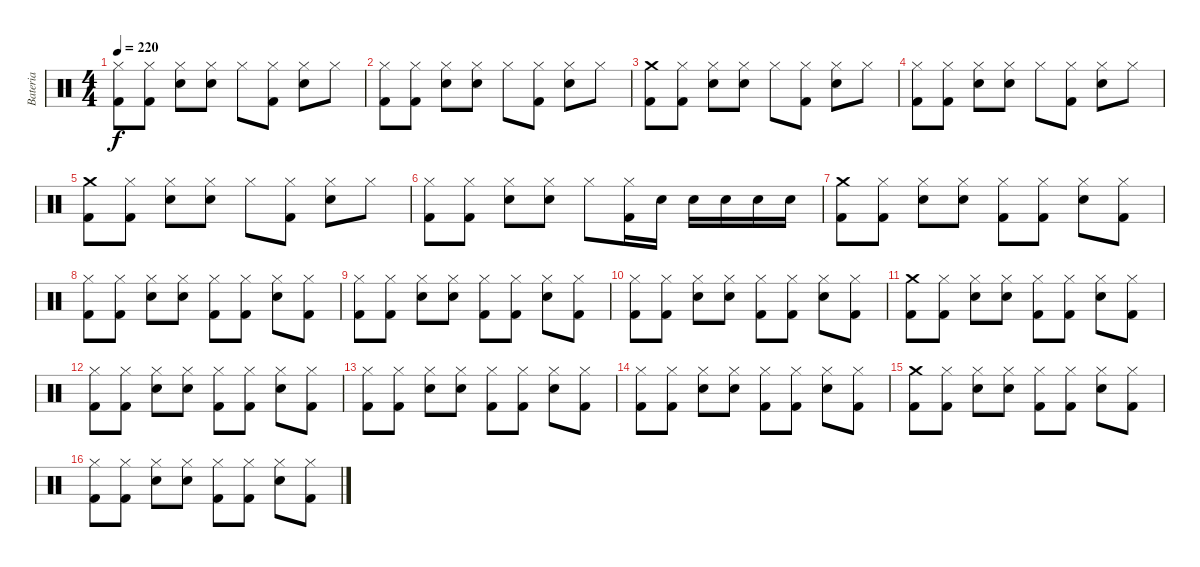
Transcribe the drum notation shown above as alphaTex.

\track ("Bateria" "Bateria") {instrument percussion}
\staff {score}
\articulation defaults
\ts (4 4)
\tempo 220
\clef neutral
\ks c
("Hi-Hat (closed)" "Kick (hit) 2").8{dy f} ("Hi-Hat (closed)" "Kick (hit) 2").8 ("Hi-Hat (closed)" "Electric Snare (hit)").8 ("Hi-Hat (closed)" "Electric Snare (hit)").8 "Hi-Hat (closed)".8 ("Hi-Hat (closed)" "Kick (hit) 2").8 ("Hi-Hat (closed)" "Electric Snare (hit)").8 "Hi-Hat (closed)".8 |
("Hi-Hat (closed)" "Kick (hit) 2").8 ("Hi-Hat (closed)" "Kick (hit) 2").8 ("Hi-Hat (closed)" "Electric Snare (hit)").8 ("Hi-Hat (closed)" "Electric Snare (hit)").8 "Hi-Hat (closed)".8 ("Hi-Hat (closed)" "Kick (hit) 2").8 ("Hi-Hat (closed)" "Electric Snare (hit)").8 "Hi-Hat (closed)".8 |
("Crash medium (hit)" "Kick (hit) 2").8 ("Hi-Hat (closed)" "Kick (hit) 2").8 ("Hi-Hat (closed)" "Electric Snare (hit)").8 ("Hi-Hat (closed)" "Electric Snare (hit)").8 "Hi-Hat (closed)".8 ("Hi-Hat (closed)" "Kick (hit) 2").8 ("Hi-Hat (closed)" "Electric Snare (hit)").8 "Hi-Hat (closed)".8 |
("Hi-Hat (closed)" "Kick (hit) 2").8 ("Hi-Hat (closed)" "Kick (hit) 2").8 ("Hi-Hat (closed)" "Electric Snare (hit)").8 ("Hi-Hat (closed)" "Electric Snare (hit)").8 "Hi-Hat (closed)".8 ("Hi-Hat (closed)" "Kick (hit) 2").8 ("Hi-Hat (closed)" "Electric Snare (hit)").8 "Hi-Hat (closed)".8 |
("Crash medium (hit)" "Kick (hit) 2").8 ("Hi-Hat (closed)" "Kick (hit) 2").8 ("Hi-Hat (closed)" "Electric Snare (hit)").8 ("Hi-Hat (closed)" "Electric Snare (hit)").8 "Hi-Hat (closed)".8 ("Hi-Hat (closed)" "Kick (hit) 2").8 ("Hi-Hat (closed)" "Electric Snare (hit)").8 "Hi-Hat (closed)".8 |
("Hi-Hat (closed)" "Kick (hit) 2").8 ("Hi-Hat (closed)" "Kick (hit) 2").8 ("Hi-Hat (closed)" "Electric Snare (hit)").8 ("Hi-Hat (closed)" "Electric Snare (hit)").8 "Hi-Hat (closed)".8 ("Hi-Hat (closed)" "Kick (hit) 2").16 "Electric Snare (hit)".16 "Electric Snare (hit)".16 "Electric Snare (hit)".16 "Electric Snare (hit)".16 "Electric Snare (hit)".16 |
("Crash medium (hit)" "Kick (hit) 2").8 ("Hi-Hat (closed)" "Kick (hit) 2").8 ("Hi-Hat (closed)" "Electric Snare (hit)").8 ("Hi-Hat (closed)" "Electric Snare (hit)").8 ("Hi-Hat (closed)" "Kick (hit) 2").8 ("Hi-Hat (closed)" "Kick (hit) 2").8 ("Hi-Hat (closed)" "Electric Snare (hit)").8 ("Hi-Hat (closed)" "Kick (hit) 2").8 |
("Hi-Hat (closed)" "Kick (hit) 2").8 ("Hi-Hat (closed)" "Kick (hit) 2").8 ("Hi-Hat (closed)" "Electric Snare (hit)").8 ("Hi-Hat (closed)" "Electric Snare (hit)").8 ("Hi-Hat (closed)" "Kick (hit) 2").8 ("Hi-Hat (closed)" "Kick (hit) 2").8 ("Hi-Hat (closed)" "Electric Snare (hit)").8 ("Hi-Hat (closed)" "Kick (hit) 2").8 |
("Hi-Hat (closed)" "Kick (hit) 2").8 ("Hi-Hat (closed)" "Kick (hit) 2").8 ("Hi-Hat (closed)" "Electric Snare (hit)").8 ("Hi-Hat (closed)" "Electric Snare (hit)").8 ("Hi-Hat (closed)" "Kick (hit) 2").8 ("Hi-Hat (closed)" "Kick (hit) 2").8 ("Hi-Hat (closed)" "Electric Snare (hit)").8 ("Hi-Hat (closed)" "Kick (hit) 2").8 |
("Hi-Hat (closed)" "Kick (hit) 2").8 ("Hi-Hat (closed)" "Kick (hit) 2").8 ("Hi-Hat (closed)" "Electric Snare (hit)").8 ("Hi-Hat (closed)" "Electric Snare (hit)").8 ("Hi-Hat (closed)" "Kick (hit) 2").8 ("Hi-Hat (closed)" "Kick (hit) 2").8 ("Hi-Hat (closed)" "Electric Snare (hit)").8 ("Hi-Hat (closed)" "Kick (hit) 2").8 |
("Crash medium (hit)" "Kick (hit) 2").8 ("Hi-Hat (closed)" "Kick (hit) 2").8 ("Hi-Hat (closed)" "Electric Snare (hit)").8 ("Hi-Hat (closed)" "Electric Snare (hit)").8 ("Hi-Hat (closed)" "Kick (hit) 2").8 ("Hi-Hat (closed)" "Kick (hit) 2").8 ("Hi-Hat (closed)" "Electric Snare (hit)").8 ("Hi-Hat (closed)" "Kick (hit) 2").8 |
("Hi-Hat (closed)" "Kick (hit) 2").8 ("Hi-Hat (closed)" "Kick (hit) 2").8 ("Hi-Hat (closed)" "Electric Snare (hit)").8 ("Hi-Hat (closed)" "Electric Snare (hit)").8 ("Hi-Hat (closed)" "Kick (hit) 2").8 ("Hi-Hat (closed)" "Kick (hit) 2").8 ("Hi-Hat (closed)" "Electric Snare (hit)").8 ("Hi-Hat (closed)" "Kick (hit) 2").8 |
("Hi-Hat (closed)" "Kick (hit) 2").8 ("Hi-Hat (closed)" "Kick (hit) 2").8 ("Hi-Hat (closed)" "Electric Snare (hit)").8 ("Hi-Hat (closed)" "Electric Snare (hit)").8 ("Hi-Hat (closed)" "Kick (hit) 2").8 ("Hi-Hat (closed)" "Kick (hit) 2").8 ("Hi-Hat (closed)" "Electric Snare (hit)").8 ("Hi-Hat (closed)" "Kick (hit) 2").8 |
("Hi-Hat (closed)" "Kick (hit) 2").8 ("Hi-Hat (closed)" "Kick (hit) 2").8 ("Hi-Hat (closed)" "Electric Snare (hit)").8 ("Hi-Hat (closed)" "Electric Snare (hit)").8 ("Hi-Hat (closed)" "Kick (hit) 2").8 ("Hi-Hat (closed)" "Kick (hit) 2").8 ("Hi-Hat (closed)" "Electric Snare (hit)").8 ("Hi-Hat (closed)" "Kick (hit) 2").8 |
("Crash medium (hit)" "Kick (hit) 2").8 ("Hi-Hat (closed)" "Kick (hit) 2").8 ("Hi-Hat (closed)" "Electric Snare (hit)").8 ("Hi-Hat (closed)" "Electric Snare (hit)").8 ("Hi-Hat (closed)" "Kick (hit) 2").8 ("Hi-Hat (closed)" "Kick (hit) 2").8 ("Hi-Hat (closed)" "Electric Snare (hit)").8 ("Hi-Hat (closed)" "Kick (hit) 2").8 |
("Hi-Hat (closed)" "Kick (hit) 2").8 ("Hi-Hat (closed)" "Kick (hit) 2").8 ("Hi-Hat (closed)" "Electric Snare (hit)").8 ("Hi-Hat (closed)" "Electric Snare (hit)").8 ("Hi-Hat (closed)" "Kick (hit) 2").8 ("Hi-Hat (closed)" "Kick (hit) 2").8 ("Hi-Hat (closed)" "Electric Snare (hit)").8 ("Hi-Hat (closed)" "Kick (hit) 2").8
